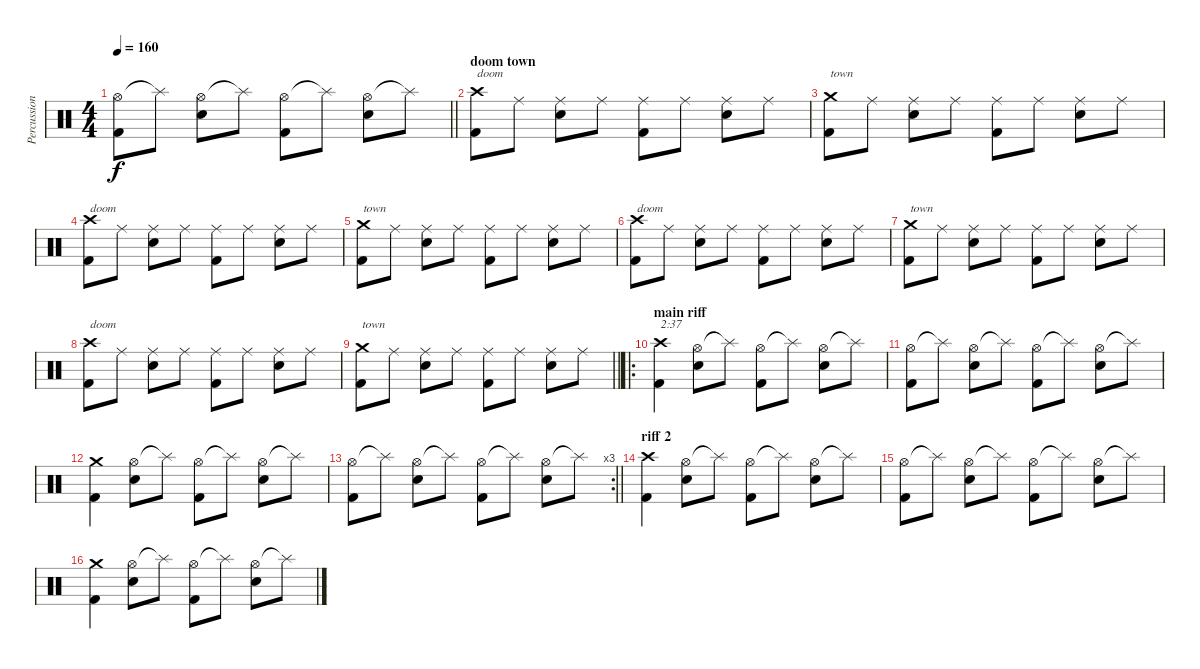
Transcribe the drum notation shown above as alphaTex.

\track ("Percussion" "Percussion") {mute instrument percussion}
\staff {score}
\articulation defaults
\ts (4 4)
\tempo 160
\clef neutral
\barLineRight lightlight
\ks c
("Hi-Hat (open)" "Kick (hit) 2").8{dy f} "Splash (hit)"{t}.8 ("Hi-Hat (open)" "Snare (hit) 2").8 "Splash (hit)"{t}.8 ("Hi-Hat (open)" "Kick (hit) 2").8 "Splash (hit)"{t}.8 ("Hi-Hat (open)" "Snare (hit) 2").8 "Splash (hit)"{t}.8 |
\section ("" "doom town")
("Crash high (hit)" "Kick (hit) 2").8{txt "doom"} "Ride (middle)".8 ("Ride (middle)" "Snare (hit) 2").8 "Ride (middle)".8 ("Ride (middle)" "Kick (hit) 2").8 "Ride (middle)".8 ("Ride (middle)" "Snare (hit) 2").8 "Ride (middle)".8 |
("Crash medium (hit)" "Kick (hit) 2").8{txt "town"} "Ride (middle)".8 ("Ride (middle)" "Snare (hit) 2").8 "Ride (middle)".8 ("Ride (middle)" "Kick (hit) 2").8 "Ride (middle)".8 ("Ride (middle)" "Snare (hit) 2").8 "Ride (middle)".8 |
("Crash high (hit)" "Kick (hit) 2").8{txt "doom"} "Ride (middle)".8 ("Ride (middle)" "Snare (hit) 2").8 "Ride (middle)".8 ("Ride (middle)" "Kick (hit) 2").8 "Ride (middle)".8 ("Ride (middle)" "Snare (hit) 2").8 "Ride (middle)".8 |
("Crash medium (hit)" "Kick (hit) 2").8{txt "town"} "Ride (middle)".8 ("Ride (middle)" "Snare (hit) 2").8 "Ride (middle)".8 ("Ride (middle)" "Kick (hit) 2").8 "Ride (middle)".8 ("Ride (middle)" "Snare (hit) 2").8 "Ride (middle)".8 |
("Crash high (hit)" "Kick (hit) 2").8{txt "doom"} "Ride (middle)".8 ("Ride (middle)" "Snare (hit) 2").8 "Ride (middle)".8 ("Ride (middle)" "Kick (hit) 2").8 "Ride (middle)".8 ("Ride (middle)" "Snare (hit) 2").8 "Ride (middle)".8 |
("Crash medium (hit)" "Kick (hit) 2").8{txt "town"} "Ride (middle)".8 ("Ride (middle)" "Snare (hit) 2").8 "Ride (middle)".8 ("Ride (middle)" "Kick (hit) 2").8 "Ride (middle)".8 ("Ride (middle)" "Snare (hit) 2").8 "Ride (middle)".8 |
("Crash high (hit)" "Kick (hit) 2").8{txt "doom"} "Ride (middle)".8 ("Ride (middle)" "Snare (hit) 2").8 "Ride (middle)".8 ("Ride (middle)" "Kick (hit) 2").8 "Ride (middle)".8 ("Ride (middle)" "Snare (hit) 2").8 "Ride (middle)".8 |
\barLineRight lightlight
("Crash medium (hit)" "Kick (hit) 2").8{txt "town"} "Ride (middle)".8 ("Ride (middle)" "Snare (hit) 2").8 "Ride (middle)".8 ("Ride (middle)" "Kick (hit) 2").8 "Ride (middle)".8 ("Ride (middle)" "Snare (hit) 2").8 "Ride (middle)".8 |
\ro
\section ("" "main riff")
("Crash high (hit)" "Kick (hit) 2").4{txt "2:37"} ("Hi-Hat (open)" "Snare (hit) 2").8 "Splash (hit)"{t}.8 ("Hi-Hat (open)" "Kick (hit) 2").8 "Splash (hit)"{t}.8 ("Hi-Hat (open)" "Snare (hit) 2").8 "Splash (hit)"{t}.8 |
("Hi-Hat (open)" "Kick (hit) 2").8 "Splash (hit)"{t}.8 ("Hi-Hat (open)" "Snare (hit) 2").8 "Splash (hit)"{t}.8 ("Hi-Hat (open)" "Kick (hit) 2").8 "Splash (hit)"{t}.8 ("Hi-Hat (open)" "Snare (hit) 2").8 "Splash (hit)"{t}.8 |
("Crash medium (hit)" "Kick (hit) 2").4 ("Hi-Hat (open)" "Snare (hit) 2").8 "Splash (hit)"{t}.8 ("Hi-Hat (open)" "Kick (hit) 2").8 "Splash (hit)"{t}.8 ("Hi-Hat (open)" "Snare (hit) 2").8 "Splash (hit)"{t}.8 |
\rc 3
\barLineRight lightlight
("Hi-Hat (open)" "Kick (hit) 2").8 "Splash (hit)"{t}.8 ("Hi-Hat (open)" "Snare (hit) 2").8 "Splash (hit)"{t}.8 ("Hi-Hat (open)" "Kick (hit) 2").8 "Splash (hit)"{t}.8 ("Hi-Hat (open)" "Snare (hit) 2").8 "Splash (hit)"{t}.8 |
\section ("" "riff 2")
("Crash high (hit)" "Kick (hit) 2").4 ("Hi-Hat (open)" "Snare (hit) 2").8 "Splash (hit)"{t}.8 ("Hi-Hat (open)" "Kick (hit) 2").8 "Splash (hit)"{t}.8 ("Hi-Hat (open)" "Snare (hit) 2").8 "Splash (hit)"{t}.8 |
("Hi-Hat (open)" "Kick (hit) 2").8 "Splash (hit)"{t}.8 ("Hi-Hat (open)" "Snare (hit) 2").8 "Splash (hit)"{t}.8 ("Hi-Hat (open)" "Kick (hit) 2").8 "Splash (hit)"{t}.8 ("Hi-Hat (open)" "Snare (hit) 2").8 "Splash (hit)"{t}.8 |
("Crash medium (hit)" "Kick (hit) 2").4 ("Hi-Hat (open)" "Snare (hit) 2").8 "Splash (hit)"{t}.8 ("Hi-Hat (open)" "Kick (hit) 2").8 "Splash (hit)"{t}.8 ("Hi-Hat (open)" "Snare (hit) 2").8 "Splash (hit)"{t}.8
